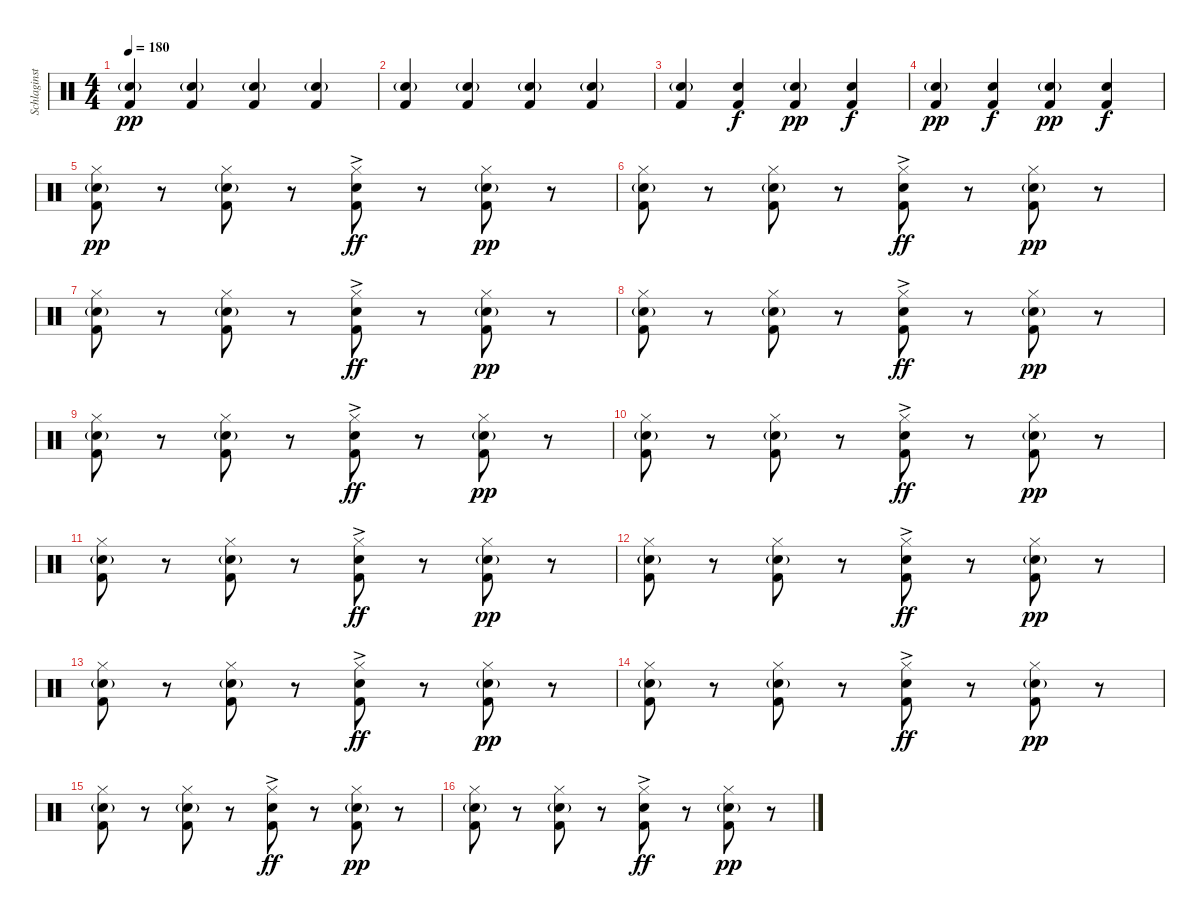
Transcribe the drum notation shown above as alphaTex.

\track ("Schlaginstrumente - Auswahl" "Schlaginst") {instrument percussion}
\staff {score}
\articulation defaults
\ts (4 4)
\tempo 180
\clef neutral
\ks c
("Electric Snare (hit)"{g} "Kick (hit) 2").4{dy pp} ("Electric Snare (hit)"{g} "Kick (hit) 2").4 ("Electric Snare (hit)"{g} "Kick (hit) 2").4 ("Electric Snare (hit)"{g} "Kick (hit) 2").4 |
("Electric Snare (hit)"{g} "Kick (hit) 2").4 ("Electric Snare (hit)"{g} "Kick (hit) 2").4 ("Electric Snare (hit)"{g} "Kick (hit) 2").4 ("Electric Snare (hit)"{g} "Kick (hit) 2").4 |
("Electric Snare (hit)"{g} "Kick (hit) 2").4 ("Electric Snare (hit)" "Kick (hit) 2").4{dy f} ("Electric Snare (hit)"{g} "Kick (hit) 2").4{dy pp} ("Electric Snare (hit)" "Kick (hit) 2").4{dy f} |
("Electric Snare (hit)"{g} "Kick (hit) 2").4{dy pp} ("Electric Snare (hit)" "Kick (hit) 2").4{dy f} ("Electric Snare (hit)"{g} "Kick (hit) 2").4{dy pp} ("Electric Snare (hit)" "Kick (hit) 2").4{dy f} |
("Hi-Hat (closed)" "Electric Snare (hit)"{g} "Kick (hit) 2").8{dy pp} r.8 ("Hi-Hat (closed)" "Electric Snare (hit)"{g} "Kick (hit) 2").8 r.8 ("Hi-Hat (closed)" "Electric Snare (hit)"{ac} "Kick (hit) 2").8{dy ff} r.8 ("Hi-Hat (closed)" "Electric Snare (hit)"{g} "Kick (hit) 2").8{dy pp} r.8 |
("Hi-Hat (closed)" "Electric Snare (hit)"{g} "Kick (hit) 2").8 r.8 ("Hi-Hat (closed)" "Electric Snare (hit)"{g} "Kick (hit) 2").8 r.8 ("Hi-Hat (closed)" "Electric Snare (hit)"{ac} "Kick (hit) 2").8{dy ff} r.8 ("Hi-Hat (closed)" "Electric Snare (hit)"{g} "Kick (hit) 2").8{dy pp} r.8 |
("Hi-Hat (closed)" "Electric Snare (hit)"{g} "Kick (hit) 2").8 r.8 ("Hi-Hat (closed)" "Electric Snare (hit)"{g} "Kick (hit) 2").8 r.8 ("Hi-Hat (closed)" "Electric Snare (hit)"{ac} "Kick (hit) 2").8{dy ff} r.8 ("Hi-Hat (closed)" "Electric Snare (hit)"{g} "Kick (hit) 2").8{dy pp} r.8 |
("Hi-Hat (closed)" "Electric Snare (hit)"{g} "Kick (hit) 2").8 r.8 ("Hi-Hat (closed)" "Electric Snare (hit)"{g} "Kick (hit) 2").8 r.8 ("Hi-Hat (closed)" "Electric Snare (hit)"{ac} "Kick (hit) 2").8{dy ff} r.8 ("Hi-Hat (closed)" "Electric Snare (hit)"{g} "Kick (hit) 2").8{dy pp} r.8 |
("Hi-Hat (closed)" "Electric Snare (hit)"{g} "Kick (hit) 2").8 r.8 ("Hi-Hat (closed)" "Electric Snare (hit)"{g} "Kick (hit) 2").8 r.8 ("Hi-Hat (closed)" "Electric Snare (hit)"{ac} "Kick (hit) 2").8{dy ff} r.8 ("Hi-Hat (closed)" "Electric Snare (hit)"{g} "Kick (hit) 2").8{dy pp} r.8 |
("Hi-Hat (closed)" "Electric Snare (hit)"{g} "Kick (hit) 2").8 r.8 ("Hi-Hat (closed)" "Electric Snare (hit)"{g} "Kick (hit) 2").8 r.8 ("Hi-Hat (closed)" "Electric Snare (hit)"{ac} "Kick (hit) 2").8{dy ff} r.8 ("Hi-Hat (closed)" "Electric Snare (hit)"{g} "Kick (hit) 2").8{dy pp} r.8 |
("Hi-Hat (closed)" "Electric Snare (hit)"{g} "Kick (hit) 2").8 r.8 ("Hi-Hat (closed)" "Electric Snare (hit)"{g} "Kick (hit) 2").8 r.8 ("Hi-Hat (closed)" "Electric Snare (hit)"{ac} "Kick (hit) 2").8{dy ff} r.8 ("Hi-Hat (closed)" "Electric Snare (hit)"{g} "Kick (hit) 2").8{dy pp} r.8 |
("Hi-Hat (closed)" "Electric Snare (hit)"{g} "Kick (hit) 2").8 r.8 ("Hi-Hat (closed)" "Electric Snare (hit)"{g} "Kick (hit) 2").8 r.8 ("Hi-Hat (closed)" "Electric Snare (hit)"{ac} "Kick (hit) 2").8{dy ff} r.8 ("Hi-Hat (closed)" "Electric Snare (hit)"{g} "Kick (hit) 2").8{dy pp} r.8 |
("Hi-Hat (closed)" "Electric Snare (hit)"{g} "Kick (hit) 2").8 r.8 ("Hi-Hat (closed)" "Electric Snare (hit)"{g} "Kick (hit) 2").8 r.8 ("Hi-Hat (closed)" "Electric Snare (hit)"{ac} "Kick (hit) 2").8{dy ff} r.8 ("Hi-Hat (closed)" "Electric Snare (hit)"{g} "Kick (hit) 2").8{dy pp} r.8 |
("Hi-Hat (closed)" "Electric Snare (hit)"{g} "Kick (hit) 2").8 r.8 ("Hi-Hat (closed)" "Electric Snare (hit)"{g} "Kick (hit) 2").8 r.8 ("Hi-Hat (closed)" "Electric Snare (hit)"{ac} "Kick (hit) 2").8{dy ff} r.8 ("Hi-Hat (closed)" "Electric Snare (hit)"{g} "Kick (hit) 2").8{dy pp} r.8 |
("Hi-Hat (closed)" "Electric Snare (hit)"{g} "Kick (hit) 2").8 r.8 ("Hi-Hat (closed)" "Electric Snare (hit)"{g} "Kick (hit) 2").8 r.8 ("Hi-Hat (closed)" "Electric Snare (hit)"{ac} "Kick (hit) 2").8{dy ff} r.8 ("Hi-Hat (closed)" "Electric Snare (hit)"{g} "Kick (hit) 2").8{dy pp} r.8 |
("Hi-Hat (closed)" "Electric Snare (hit)"{g} "Kick (hit) 2").8 r.8 ("Hi-Hat (closed)" "Electric Snare (hit)"{g} "Kick (hit) 2").8 r.8 ("Hi-Hat (closed)" "Electric Snare (hit)"{ac} "Kick (hit) 2").8{dy ff} r.8 ("Hi-Hat (closed)" "Electric Snare (hit)"{g} "Kick (hit) 2").8{dy pp} r.8
